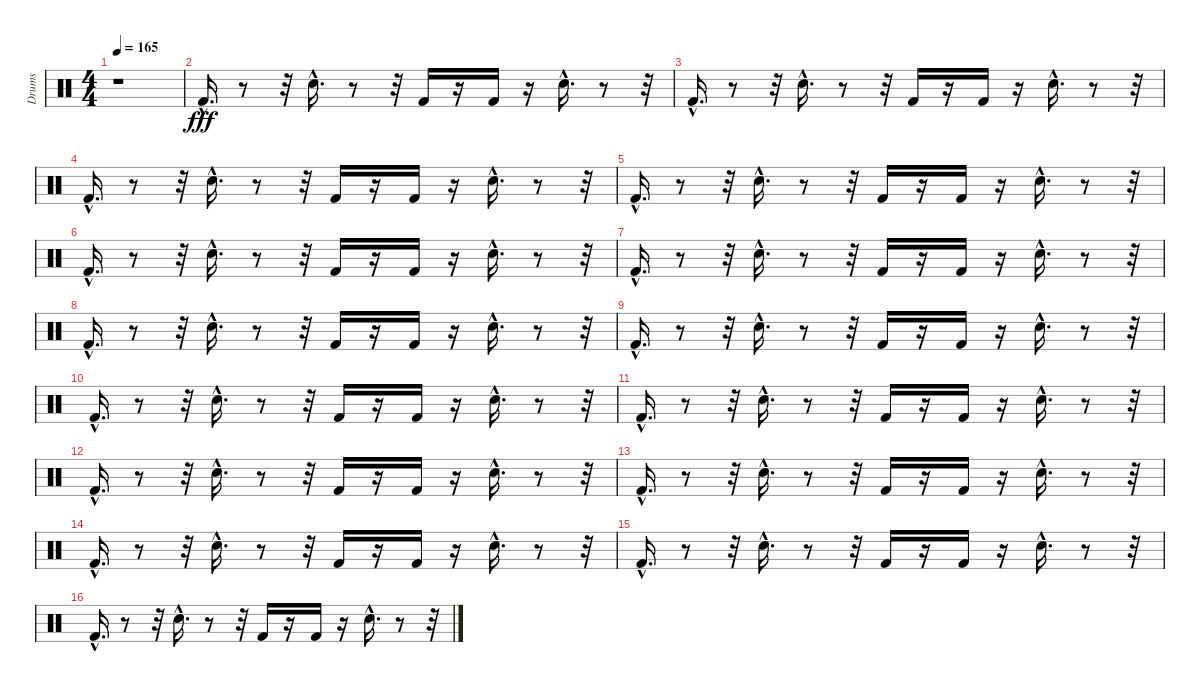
\track ("Drums" "Drums") {instrument percussion}
\staff {score}
\articulation defaults
\ts (4 4)
\tempo 165
\clef neutral
\ks c
r.1{dy fff} |
"Kick (hit) 2"{hac}.16{d} r.8 r.32 "Electric Snare (hit)"{hac}.16{d} r.8 r.32 "Kick (hit) 2".16 r.16 "Kick (hit) 2".16 r.16 "Electric Snare (hit)"{hac}.16{d} r.8 r.32 |
"Kick (hit) 2"{hac}.16{d} r.8 r.32 "Electric Snare (hit)"{hac}.16{d} r.8 r.32 "Kick (hit) 2".16 r.16 "Kick (hit) 2".16 r.16 "Electric Snare (hit)"{hac}.16{d} r.8 r.32 |
"Kick (hit) 2"{hac}.16{d} r.8 r.32 "Electric Snare (hit)"{hac}.16{d} r.8 r.32 "Kick (hit) 2".16 r.16 "Kick (hit) 2".16 r.16 "Electric Snare (hit)"{hac}.16{d} r.8 r.32 |
"Kick (hit) 2"{hac}.16{d} r.8 r.32 "Electric Snare (hit)"{hac}.16{d} r.8 r.32 "Kick (hit) 2".16 r.16 "Kick (hit) 2".16 r.16 "Electric Snare (hit)"{hac}.16{d} r.8 r.32 |
"Kick (hit) 2"{hac}.16{d} r.8 r.32 "Electric Snare (hit)"{hac}.16{d} r.8 r.32 "Kick (hit) 2".16 r.16 "Kick (hit) 2".16 r.16 "Electric Snare (hit)"{hac}.16{d} r.8 r.32 |
"Kick (hit) 2"{hac}.16{d} r.8 r.32 "Electric Snare (hit)"{hac}.16{d} r.8 r.32 "Kick (hit) 2".16 r.16 "Kick (hit) 2".16 r.16 "Electric Snare (hit)"{hac}.16{d} r.8 r.32 |
"Kick (hit) 2"{hac}.16{d} r.8 r.32 "Electric Snare (hit)"{hac}.16{d} r.8 r.32 "Kick (hit) 2".16 r.16 "Kick (hit) 2".16 r.16 "Electric Snare (hit)"{hac}.16{d} r.8 r.32 |
"Kick (hit) 2"{hac}.16{d} r.8 r.32 "Electric Snare (hit)"{hac}.16{d} r.8 r.32 "Kick (hit) 2".16 r.16 "Kick (hit) 2".16 r.16 "Electric Snare (hit)"{hac}.16{d} r.8 r.32 |
"Kick (hit) 2"{hac}.16{d} r.8 r.32 "Electric Snare (hit)"{hac}.16{d} r.8 r.32 "Kick (hit) 2".16 r.16 "Kick (hit) 2".16 r.16 "Electric Snare (hit)"{hac}.16{d} r.8 r.32 |
"Kick (hit) 2"{hac}.16{d} r.8 r.32 "Electric Snare (hit)"{hac}.16{d} r.8 r.32 "Kick (hit) 2".16 r.16 "Kick (hit) 2".16 r.16 "Electric Snare (hit)"{hac}.16{d} r.8 r.32 |
"Kick (hit) 2"{hac}.16{d} r.8 r.32 "Electric Snare (hit)"{hac}.16{d} r.8 r.32 "Kick (hit) 2".16 r.16 "Kick (hit) 2".16 r.16 "Electric Snare (hit)"{hac}.16{d} r.8 r.32 |
"Kick (hit) 2"{hac}.16{d} r.8 r.32 "Electric Snare (hit)"{hac}.16{d} r.8 r.32 "Kick (hit) 2".16 r.16 "Kick (hit) 2".16 r.16 "Electric Snare (hit)"{hac}.16{d} r.8 r.32 |
"Kick (hit) 2"{hac}.16{d} r.8 r.32 "Electric Snare (hit)"{hac}.16{d} r.8 r.32 "Kick (hit) 2".16 r.16 "Kick (hit) 2".16 r.16 "Electric Snare (hit)"{hac}.16{d} r.8 r.32 |
"Kick (hit) 2"{hac}.16{d} r.8 r.32 "Electric Snare (hit)"{hac}.16{d} r.8 r.32 "Kick (hit) 2".16 r.16 "Kick (hit) 2".16 r.16 "Electric Snare (hit)"{hac}.16{d} r.8 r.32 |
"Kick (hit) 2"{hac}.16{d} r.8 r.32 "Electric Snare (hit)"{hac}.16{d} r.8 r.32 "Kick (hit) 2".16 r.16 "Kick (hit) 2".16 r.16 "Electric Snare (hit)"{hac}.16{d} r.8 r.32
